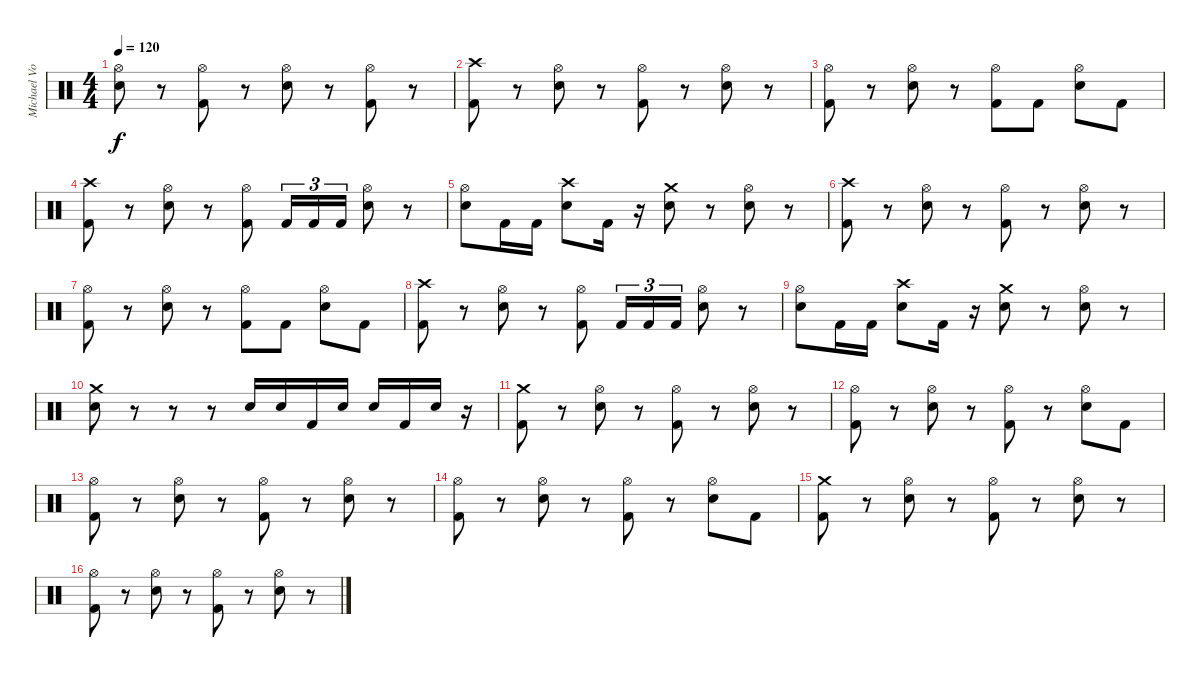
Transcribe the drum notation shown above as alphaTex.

\track ("Michael Von Knorring" "Michael Vo") {instrument percussion}
\staff {score}
\articulation defaults
\ts (4 4)
\tempo 120
\clef neutral
\ks c
("Hi-Hat (open)" "Snare (hit) 2").8{dy f} r.8 ("Hi-Hat (open)" "Kick (hit) 2").8 r.8 ("Hi-Hat (open)" "Snare (hit) 2").8 r.8 ("Hi-Hat (open)" "Kick (hit) 2").8 r.8 |
("Crash high (hit)" "Kick (hit) 2").8 r.8 ("Hi-Hat (open)" "Snare (hit) 2").8 r.8 ("Hi-Hat (open)" "Kick (hit) 2").8 r.8 ("Hi-Hat (open)" "Snare (hit) 2").8 r.8 |
("Hi-Hat (open)" "Kick (hit) 2").8 r.8 ("Hi-Hat (open)" "Snare (hit) 2").8 r.8 ("Kick (hit) 2" "Hi-Hat (open)").8 "Kick (hit) 2".8 ("Hi-Hat (open)" "Snare (hit) 2").8 "Kick (hit) 2".8 |
("Crash high (hit)" "Kick (hit) 2").8 r.8 ("Hi-Hat (open)" "Snare (hit) 2").8 r.8 ("Hi-Hat (open)" "Kick (hit) 2").8 "Kick (hit) 2".16{tu (3 2)} "Kick (hit) 2".16{tu (3 2)} "Kick (hit) 2".16{tu (3 2)} ("Hi-Hat (open)" "Snare (hit) 2").8 r.8 |
("Hi-Hat (open)" "Snare (hit) 2").8 "Kick (hit) 2".16 "Kick (hit) 2".16 ("Crash high (hit)" "Snare (hit) 2").8 "Kick (hit) 2".16 r.16 ("Crash medium (hit)" "Snare (hit) 2").8 r.8 ("Hi-Hat (open)" "Snare (hit) 2").8 r.8 |
("Crash high (hit)" "Kick (hit) 2").8 r.8 ("Hi-Hat (open)" "Snare (hit) 2").8 r.8 ("Hi-Hat (open)" "Kick (hit) 2").8 r.8 ("Hi-Hat (open)" "Snare (hit) 2").8 r.8 |
("Hi-Hat (open)" "Kick (hit) 2").8 r.8 ("Hi-Hat (open)" "Snare (hit) 2").8 r.8 ("Kick (hit) 2" "Hi-Hat (open)").8 "Kick (hit) 2".8 ("Hi-Hat (open)" "Snare (hit) 2").8 "Kick (hit) 2".8 |
("Crash high (hit)" "Kick (hit) 2").8 r.8 ("Hi-Hat (open)" "Snare (hit) 2").8 r.8 ("Hi-Hat (open)" "Kick (hit) 2").8 "Kick (hit) 2".16{tu (3 2)} "Kick (hit) 2".16{tu (3 2)} "Kick (hit) 2".16{tu (3 2)} ("Hi-Hat (open)" "Snare (hit) 2").8 r.8 |
("Hi-Hat (open)" "Snare (hit) 2").8 "Kick (hit) 2".16 "Kick (hit) 2".16 ("Crash high (hit)" "Snare (hit) 2").8 "Kick (hit) 2".16 r.16 ("Crash medium (hit)" "Snare (hit) 2").8 r.8 ("Hi-Hat (open)" "Snare (hit) 2").8 r.8 |
("Crash medium (hit)" "Snare (hit) 2").8 r.8 r.8 r.8 "Snare (hit) 2".16 "Snare (hit) 2".16 "Kick (hit) 2".16 "Snare (hit) 2".16 "Snare (hit) 2".16 "Kick (hit) 2".16 "Snare (hit) 2".16 r.16 |
("Kick (hit) 2" "Crash medium (hit)").8 r.8 ("Hi-Hat (open)" "Snare (hit) 2").8 r.8 ("Hi-Hat (open)" "Kick (hit) 2").8 r.8 ("Hi-Hat (open)" "Snare (hit) 2").8 r.8 |
("Hi-Hat (open)" "Kick (hit) 2").8 r.8 ("Hi-Hat (open)" "Snare (hit) 2").8 r.8 ("Hi-Hat (open)" "Kick (hit) 2").8 r.8 ("Hi-Hat (open)" "Snare (hit) 2").8 "Kick (hit) 2".8 |
("Hi-Hat (open)" "Kick (hit) 2").8 r.8 ("Hi-Hat (open)" "Snare (hit) 2").8 r.8 ("Hi-Hat (open)" "Kick (hit) 2").8 r.8 ("Hi-Hat (open)" "Snare (hit) 2").8 r.8 |
("Hi-Hat (open)" "Kick (hit) 2").8 r.8 ("Hi-Hat (open)" "Snare (hit) 2").8 r.8 ("Hi-Hat (open)" "Kick (hit) 2").8 r.8 ("Hi-Hat (open)" "Snare (hit) 2").8 "Kick (hit) 2".8 |
("Crash medium (hit)" "Kick (hit) 2").8 r.8 ("Hi-Hat (open)" "Snare (hit) 2").8 r.8 ("Hi-Hat (open)" "Kick (hit) 2").8 r.8 ("Hi-Hat (open)" "Snare (hit) 2").8 r.8 |
("Hi-Hat (open)" "Kick (hit) 2").8 r.8 ("Hi-Hat (open)" "Snare (hit) 2").8 r.8 ("Hi-Hat (open)" "Kick (hit) 2").8 r.8 ("Hi-Hat (open)" "Snare (hit) 2").8 r.8
